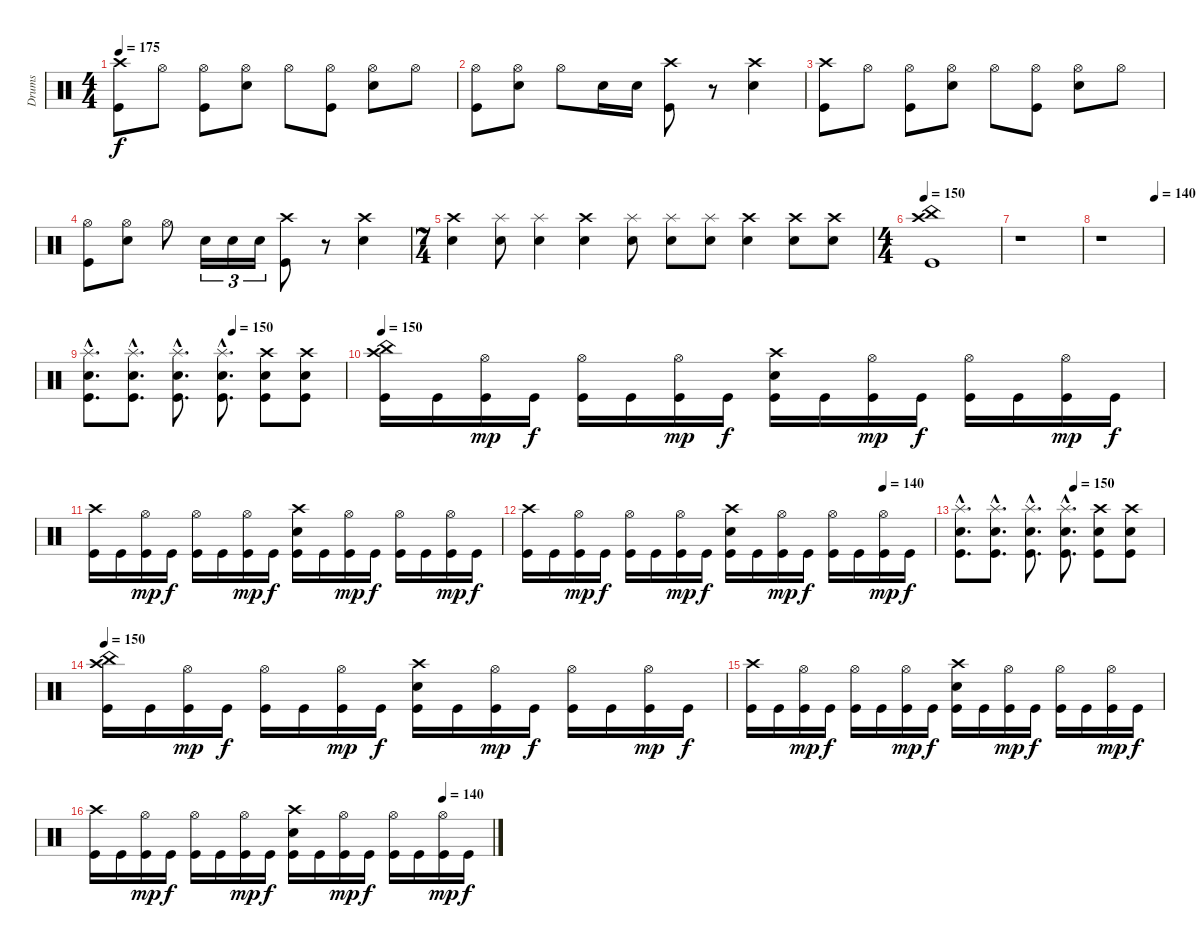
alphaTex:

\track ("Drums" "Drums") {instrument percussion}
\staff {score}
\articulation defaults
\ts (4 4)
\tempo 175
\clef neutral
\ks c
("Crash high (hit)" "Kick (hit)").8{dy f} "Hi-Hat (open)".8 ("Hi-Hat (open)" "Kick (hit)").8 ("Hi-Hat (open)" "Electric Snare (hit)").8 "Hi-Hat (open)".8 ("Hi-Hat (open)" "Kick (hit)").8 ("Hi-Hat (open)" "Electric Snare (hit)").8 "Hi-Hat (open)".8 |
("Hi-Hat (open)" "Kick (hit)").8 ("Hi-Hat (open)" "Electric Snare (hit)").8 "Hi-Hat (open)".8 "Electric Snare (hit)".16 "Electric Snare (hit)".16 ("Crash high (hit)" "Kick (hit)").8 r.8 ("Crash high (hit)" "Electric Snare (hit)").4 |
("Crash high (hit)" "Kick (hit)").8 "Hi-Hat (open)".8 ("Hi-Hat (open)" "Kick (hit)").8 ("Hi-Hat (open)" "Electric Snare (hit)").8 "Hi-Hat (open)".8 ("Hi-Hat (open)" "Kick (hit)").8 ("Hi-Hat (open)" "Electric Snare (hit)").8 "Hi-Hat (open)".8 |
("Hi-Hat (open)" "Kick (hit)").8 ("Hi-Hat (open)" "Electric Snare (hit)").8 "Hi-Hat (open)".8 "Electric Snare (hit)".16{tu (3 2)} "Electric Snare (hit)".16{tu (3 2)} "Electric Snare (hit)".16{tu (3 2)} ("Crash high (hit)" "Kick (hit)").8 r.8 ("Crash high (hit)" "Electric Snare (hit)").4 |
\ts (7 4)
("Crash high (hit)" "Electric Snare (hit)").4 ("Splash (hit)" "Electric Snare (hit)").8 ("Splash (hit)" "Electric Snare (hit)").4 ("Crash high (hit)" "Electric Snare (hit)").4 ("Splash (hit)" "Electric Snare (hit)").8 ("Splash (hit)" "Electric Snare (hit)").8 ("Splash (hit)" "Electric Snare (hit)").8 ("Crash high (hit)" "Electric Snare (hit)").4 ("Crash high (hit)" "Electric Snare (hit)").8 ("Crash high (hit)" "Electric Snare (hit)").8 |
\ts (4 4)
\tempo 150
("China (hit)" "Crash high (hit)" "Kick (hit)").1 |
r.1 |
\tempo (140 0.875)
r.1 |
\tempo (150 0.5625)
("Splash (hit)"{hac} "Electric Snare (hit)"{hac} "Kick (hit)"{hac}).8{d} ("Splash (hit)"{hac} "Electric Snare (hit)"{hac} "Kick (hit)"{hac}).8{d} ("Splash (hit)"{hac} "Electric Snare (hit)"{hac} "Kick (hit)"{hac}).8{d} ("Splash (hit)"{hac} "Electric Snare (hit)"{hac} "Kick (hit)"{hac}).8{d} ("Crash high (hit)" "Electric Snare (hit)" "Kick (hit)").8 ("Crash high (hit)" "Electric Snare (hit)" "Kick (hit)").8 |
\tempo 150
("Crash high (hit)" "China (hit)" "Kick (hit)").16 "Kick (hit)".16 ("Hi-Hat (open)" "Kick (hit)").16{dy mp} "Kick (hit)".16{dy f} ("Hi-Hat (open)" "Kick (hit)").16 "Kick (hit)".16 ("Hi-Hat (open)" "Kick (hit)").16{dy mp} "Kick (hit)".16{dy f} ("Crash high (hit)" "Electric Snare (hit)" "Kick (hit)").16 "Kick (hit)".16 ("Hi-Hat (open)" "Kick (hit)").16{dy mp} "Kick (hit)".16{dy f} ("Hi-Hat (open)" "Kick (hit)").16 "Kick (hit)".16 ("Hi-Hat (open)" "Kick (hit)").16{dy mp} "Kick (hit)".16{dy f} |
("Crash high (hit)" "Kick (hit)").16 "Kick (hit)".16 ("Hi-Hat (open)" "Kick (hit)").16{dy mp} "Kick (hit)".16{dy f} ("Hi-Hat (open)" "Kick (hit)").16 "Kick (hit)".16 ("Hi-Hat (open)" "Kick (hit)").16{dy mp} "Kick (hit)".16{dy f} ("Crash high (hit)" "Electric Snare (hit)" "Kick (hit)").16 "Kick (hit)".16 ("Hi-Hat (open)" "Kick (hit)").16{dy mp} "Kick (hit)".16{dy f} ("Hi-Hat (open)" "Kick (hit)").16 "Kick (hit)".16 ("Hi-Hat (open)" "Kick (hit)").16{dy mp} "Kick (hit)".16{dy f} |
\tempo (140 0.875)
("Crash high (hit)" "Kick (hit)").16 "Kick (hit)".16 ("Hi-Hat (open)" "Kick (hit)").16{dy mp} "Kick (hit)".16{dy f} ("Hi-Hat (open)" "Kick (hit)").16 "Kick (hit)".16 ("Hi-Hat (open)" "Kick (hit)").16{dy mp} "Kick (hit)".16{dy f} ("Crash high (hit)" "Electric Snare (hit)" "Kick (hit)").16 "Kick (hit)".16 ("Hi-Hat (open)" "Kick (hit)").16{dy mp} "Kick (hit)".16{dy f} ("Hi-Hat (open)" "Kick (hit)").16 "Kick (hit)".16 ("Hi-Hat (open)" "Kick (hit)").16{dy mp} "Kick (hit)".16{dy f} |
\tempo (150 0.5625)
("Splash (hit)"{hac} "Electric Snare (hit)"{hac} "Kick (hit)"{hac}).8{d} ("Splash (hit)"{hac} "Electric Snare (hit)"{hac} "Kick (hit)"{hac}).8{d} ("Splash (hit)"{hac} "Electric Snare (hit)"{hac} "Kick (hit)"{hac}).8{d} ("Splash (hit)"{hac} "Electric Snare (hit)"{hac} "Kick (hit)"{hac}).8{d} ("Crash high (hit)" "Electric Snare (hit)" "Kick (hit)").8 ("Crash high (hit)" "Electric Snare (hit)" "Kick (hit)").8 |
\tempo 150
("Crash high (hit)" "China (hit)" "Kick (hit)").16 "Kick (hit)".16 ("Hi-Hat (open)" "Kick (hit)").16{dy mp} "Kick (hit)".16{dy f} ("Hi-Hat (open)" "Kick (hit)").16 "Kick (hit)".16 ("Hi-Hat (open)" "Kick (hit)").16{dy mp} "Kick (hit)".16{dy f} ("Crash high (hit)" "Electric Snare (hit)" "Kick (hit)").16 "Kick (hit)".16 ("Hi-Hat (open)" "Kick (hit)").16{dy mp} "Kick (hit)".16{dy f} ("Hi-Hat (open)" "Kick (hit)").16 "Kick (hit)".16 ("Hi-Hat (open)" "Kick (hit)").16{dy mp} "Kick (hit)".16{dy f} |
("Crash high (hit)" "Kick (hit)").16 "Kick (hit)".16 ("Hi-Hat (open)" "Kick (hit)").16{dy mp} "Kick (hit)".16{dy f} ("Hi-Hat (open)" "Kick (hit)").16 "Kick (hit)".16 ("Hi-Hat (open)" "Kick (hit)").16{dy mp} "Kick (hit)".16{dy f} ("Crash high (hit)" "Electric Snare (hit)" "Kick (hit)").16 "Kick (hit)".16 ("Hi-Hat (open)" "Kick (hit)").16{dy mp} "Kick (hit)".16{dy f} ("Hi-Hat (open)" "Kick (hit)").16 "Kick (hit)".16 ("Hi-Hat (open)" "Kick (hit)").16{dy mp} "Kick (hit)".16{dy f} |
\tempo (140 0.875)
("Crash high (hit)" "Kick (hit)").16 "Kick (hit)".16 ("Hi-Hat (open)" "Kick (hit)").16{dy mp} "Kick (hit)".16{dy f} ("Hi-Hat (open)" "Kick (hit)").16 "Kick (hit)".16 ("Hi-Hat (open)" "Kick (hit)").16{dy mp} "Kick (hit)".16{dy f} ("Crash high (hit)" "Electric Snare (hit)" "Kick (hit)").16 "Kick (hit)".16 ("Hi-Hat (open)" "Kick (hit)").16{dy mp} "Kick (hit)".16{dy f} ("Hi-Hat (open)" "Kick (hit)").16 "Kick (hit)".16 ("Hi-Hat (open)" "Kick (hit)").16{dy mp} "Kick (hit)".16{dy f}
